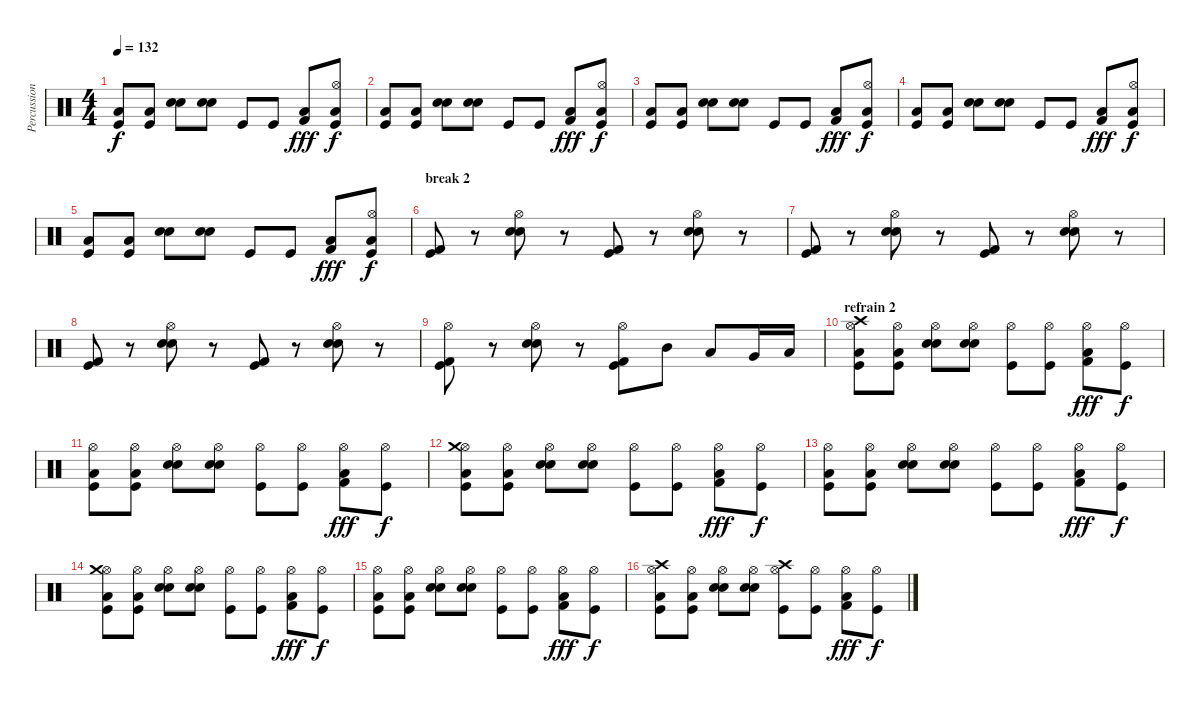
\track ("Percussions" "Percussion") {instrument percussion}
\staff {score}
\articulation defaults
\ts (4 4)
\tempo 132
\clef neutral
\ks c
("Low Floor Tom (hit)" "Kick (hit)").8{dy f} ("Low Floor Tom (hit)" "Kick (hit)").8 ("Electric Snare (hit)" "Snare (hit) 2").8{bu 480} ("Electric Snare (hit)" "Snare (hit) 2").8{bu 480} "Kick (hit)".8 "Kick (hit)".8 ("Kick (hit) 2" "Low Floor Tom (hit)").8{dy fff} ("Hi-Hat (open)" "Low Tom (hit)" "Kick (hit)").8{dy f} |
("Low Floor Tom (hit)" "Kick (hit)").8 ("Low Floor Tom (hit)" "Kick (hit)").8 ("Electric Snare (hit)" "Snare (hit) 2").8{bu 480} ("Electric Snare (hit)" "Snare (hit) 2").8{bu 480} "Kick (hit)".8 "Kick (hit)".8 ("Kick (hit) 2" "Low Floor Tom (hit)").8{dy fff} ("Hi-Hat (open)" "Low Tom (hit)" "Kick (hit)").8{dy f} |
("Low Floor Tom (hit)" "Kick (hit)").8 ("Low Floor Tom (hit)" "Kick (hit)").8 ("Electric Snare (hit)" "Snare (hit) 2").8{bu 480} ("Electric Snare (hit)" "Snare (hit) 2").8{bu 480} "Kick (hit)".8 "Kick (hit)".8 ("Kick (hit) 2" "Low Floor Tom (hit)").8{dy fff} ("Hi-Hat (open)" "Low Tom (hit)" "Kick (hit)").8{dy f} |
("Low Floor Tom (hit)" "Kick (hit)").8 ("Low Floor Tom (hit)" "Kick (hit)").8 ("Electric Snare (hit)" "Snare (hit) 2").8{bu 480} ("Electric Snare (hit)" "Snare (hit) 2").8{bu 480} "Kick (hit)".8 "Kick (hit)".8 ("Kick (hit) 2" "Low Floor Tom (hit)").8{dy fff} ("Hi-Hat (open)" "Low Tom (hit)" "Kick (hit)").8{dy f} |
("Low Floor Tom (hit)" "Kick (hit)").8 ("Low Floor Tom (hit)" "Kick (hit)").8 ("Electric Snare (hit)" "Snare (hit) 2").8{bu 480} ("Electric Snare (hit)" "Snare (hit) 2").8{bu 480} "Kick (hit)".8 "Kick (hit)".8 ("Kick (hit) 2" "Low Floor Tom (hit)").8{dy fff} ("Hi-Hat (open)" "Low Tom (hit)" "Kick (hit)").8{dy f} |
\section ("" "break 2")
("Kick (hit) 2" "Kick (hit)").8 r.8 ("Hi-Hat (open)" "Snare (hit) 2" "Electric Snare (hit)").8{bu 480} r.8 ("Kick (hit) 2" "Kick (hit)").8 r.8 ("Hi-Hat (open)" "Snare (hit) 2" "Electric Snare (hit)").8{bu 480} r.8 |
("Kick (hit) 2" "Kick (hit)").8 r.8 ("Hi-Hat (open)" "Snare (hit) 2" "Electric Snare (hit)").8{bu 480} r.8 ("Kick (hit) 2" "Kick (hit)").8 r.8 ("Hi-Hat (open)" "Snare (hit) 2" "Electric Snare (hit)").8{bu 480} r.8 |
("Kick (hit) 2" "Kick (hit)").8 r.8 ("Hi-Hat (open)" "Snare (hit) 2" "Electric Snare (hit)").8{bu 480} r.8 ("Kick (hit) 2" "Kick (hit)").8 r.8 ("Hi-Hat (open)" "Snare (hit) 2" "Electric Snare (hit)").8{bu 480} r.8 |
("Hi-Hat (open)" "Kick (hit) 2" "Kick (hit)").8 r.8 ("Hi-Hat (open)" "Snare (hit) 2" "Electric Snare (hit)").8{bu 480} r.8 ("Hi-Hat (open)" "Kick (hit) 2" "Kick (hit)").8 "Mid Tom (hit)".8 "Low Tom (hit)".8 "Very Low Tom (hit)".16 "Low Floor Tom (hit)".16 |
\section ("" "refrain 2")
("Hi-Hat (open)" "Crash high (hit)" "Low Floor Tom (hit)" "Kick (hit)").8 ("Hi-Hat (open)" "Low Floor Tom (hit)" "Kick (hit)").8 ("Hi-Hat (open)" "Electric Snare (hit)" "Snare (hit) 2").8 ("Hi-Hat (open)" "Electric Snare (hit)" "Snare (hit) 2").8 ("Hi-Hat (open)" "Kick (hit)").8 ("Hi-Hat (open)" "Kick (hit)").8 ("Hi-Hat (open)" "Kick (hit) 2" "Low Floor Tom (hit)").8{dy fff} ("Hi-Hat (open)" "Kick (hit)").8{dy f} |
("Hi-Hat (open)" "Low Floor Tom (hit)" "Kick (hit)").8 ("Hi-Hat (open)" "Low Floor Tom (hit)" "Kick (hit)").8 ("Hi-Hat (open)" "Electric Snare (hit)" "Snare (hit) 2").8 ("Hi-Hat (open)" "Electric Snare (hit)" "Snare (hit) 2").8 ("Hi-Hat (open)" "Kick (hit)").8 ("Hi-Hat (open)" "Kick (hit)").8 ("Hi-Hat (open)" "Kick (hit) 2" "Low Floor Tom (hit)").8{dy fff} ("Hi-Hat (open)" "Kick (hit)").8{dy f} |
("Hi-Hat (open)" "Crash medium (hit)" "Low Floor Tom (hit)" "Kick (hit)").8 ("Hi-Hat (open)" "Low Floor Tom (hit)" "Kick (hit)").8 ("Hi-Hat (open)" "Electric Snare (hit)" "Snare (hit) 2").8 ("Hi-Hat (open)" "Electric Snare (hit)" "Snare (hit) 2").8 ("Hi-Hat (open)" "Kick (hit)").8 ("Hi-Hat (open)" "Kick (hit)").8 ("Hi-Hat (open)" "Kick (hit) 2" "Low Floor Tom (hit)").8{dy fff} ("Hi-Hat (open)" "Kick (hit)").8{dy f} |
("Hi-Hat (open)" "Low Floor Tom (hit)" "Kick (hit)").8 ("Hi-Hat (open)" "Low Floor Tom (hit)" "Kick (hit)").8 ("Hi-Hat (open)" "Electric Snare (hit)" "Snare (hit) 2").8 ("Hi-Hat (open)" "Electric Snare (hit)" "Snare (hit) 2").8 ("Hi-Hat (open)" "Kick (hit)").8 ("Hi-Hat (open)" "Kick (hit)").8 ("Hi-Hat (open)" "Kick (hit) 2" "Low Floor Tom (hit)").8{dy fff} ("Hi-Hat (open)" "Kick (hit)").8{dy f} |
("Hi-Hat (open)" "Crash medium (hit)" "Low Floor Tom (hit)" "Kick (hit)").8 ("Hi-Hat (open)" "Low Floor Tom (hit)" "Kick (hit)").8 ("Hi-Hat (open)" "Electric Snare (hit)" "Snare (hit) 2").8 ("Hi-Hat (open)" "Electric Snare (hit)" "Snare (hit) 2").8 ("Hi-Hat (open)" "Kick (hit)").8 ("Hi-Hat (open)" "Kick (hit)").8 ("Hi-Hat (open)" "Kick (hit) 2" "Low Floor Tom (hit)").8{dy fff} ("Hi-Hat (open)" "Kick (hit)").8{dy f} |
("Hi-Hat (open)" "Low Floor Tom (hit)" "Kick (hit)").8 ("Hi-Hat (open)" "Low Floor Tom (hit)" "Kick (hit)").8 ("Hi-Hat (open)" "Electric Snare (hit)" "Snare (hit) 2").8 ("Hi-Hat (open)" "Electric Snare (hit)" "Snare (hit) 2").8 ("Hi-Hat (open)" "Kick (hit)").8 ("Hi-Hat (open)" "Kick (hit)").8 ("Hi-Hat (open)" "Kick (hit) 2" "Low Floor Tom (hit)").8{dy fff} ("Hi-Hat (open)" "Kick (hit)").8{dy f} |
("Hi-Hat (open)" "Crash high (hit)" "Low Floor Tom (hit)" "Kick (hit)").8 ("Hi-Hat (open)" "Low Floor Tom (hit)" "Kick (hit)").8 ("Hi-Hat (open)" "Electric Snare (hit)" "Snare (hit) 2").8 ("Hi-Hat (open)" "Electric Snare (hit)" "Snare (hit) 2").8 ("Hi-Hat (open)" "Crash high (hit)" "Kick (hit)").8 ("Hi-Hat (open)" "Kick (hit)").8 ("Hi-Hat (open)" "Kick (hit) 2" "Low Floor Tom (hit)").8{dy fff} ("Hi-Hat (open)" "Kick (hit)").8{dy f}
